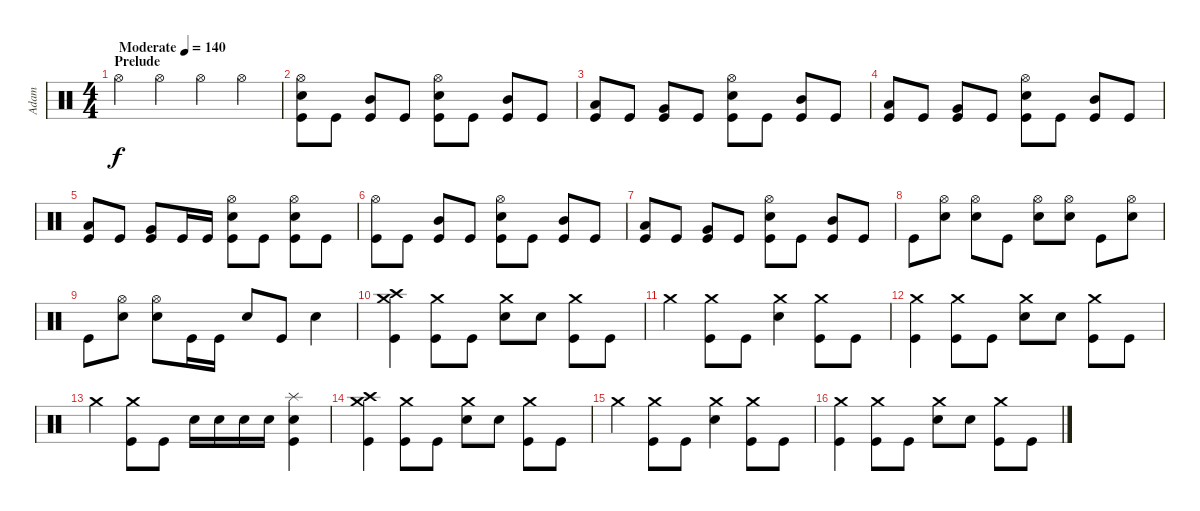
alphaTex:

\track ("Adam" "Adam") {instrument percussion}
\staff {score}
\articulation defaults
\ts (4 4)
\section ("" "Prelude")
\tempo (140 "Moderate")
\clef neutral
\ks c "Hi-Hat (open)".4{dy f} "Hi-Hat (open)".4 "Hi-Hat (open)".4 "Hi-Hat (open)".4
|
("Hi-Hat (open)" "Electric Snare (hit)" "Kick (hit)").8 "Kick (hit)".8 ("Mid Tom (hit)" "Kick (hit)").8 "Kick (hit)".8 ("Hi-Hat (open)" "Electric Snare (hit)" "Kick (hit)").8 "Kick (hit)".8 ("Mid Tom (hit)" "Kick (hit)").8 "Kick (hit)".8 |
("Low Tom (hit)" "Kick (hit)").8 "Kick (hit)".8 ("Very Low Tom (hit)" "Kick (hit)").8 "Kick (hit)".8 ("Hi-Hat (open)" "Electric Snare (hit)" "Kick (hit)").8 "Kick (hit)".8 ("Mid Tom (hit)" "Kick (hit)").8 "Kick (hit)".8 |
("Low Tom (hit)" "Kick (hit)").8 "Kick (hit)".8 ("Very Low Tom (hit)" "Kick (hit)").8 "Kick (hit)".8 ("Hi-Hat (open)" "Electric Snare (hit)" "Kick (hit)").8 "Kick (hit)".8 ("Mid Tom (hit)" "Kick (hit)").8 "Kick (hit)".8 |
("Low Tom (hit)" "Kick (hit)").8 "Kick (hit)".8 ("Very Low Tom (hit)" "Kick (hit)").8 "Kick (hit)".16 "Kick (hit)".16 ("Hi-Hat (open)" "Electric Snare (hit)" "Kick (hit)").8 "Kick (hit)".8 ("Hi-Hat (open)" "Electric Snare (hit)" "Kick (hit)").8 "Kick (hit)".8 |
("Hi-Hat (open)" "Kick (hit)").8 "Kick (hit)".8 ("Mid Tom (hit)" "Kick (hit)").8 "Kick (hit)".8 ("Hi-Hat (open)" "Electric Snare (hit)" "Kick (hit)").8 "Kick (hit)".8 ("Mid Tom (hit)" "Kick (hit)").8 "Kick (hit)".8 |
("Low Tom (hit)" "Kick (hit)").8 "Kick (hit)".8 ("Very Low Tom (hit)" "Kick (hit)").8 "Kick (hit)".8 ("Hi-Hat (open)" "Electric Snare (hit)" "Kick (hit)").8 "Kick (hit)".8 ("Mid Tom (hit)" "Kick (hit)").8 "Kick (hit)".8 |
"Kick (hit)".8 ("Hi-Hat (open)" "Electric Snare (hit)").8 ("Hi-Hat (open)" "Electric Snare (hit)").8 "Kick (hit)".8 ("Hi-Hat (open)" "Electric Snare (hit)").8 ("Hi-Hat (open)" "Electric Snare (hit)").8 "Kick (hit)".8 ("Hi-Hat (open)" "Electric Snare (hit)").8 |
"Kick (hit)".8 ("Hi-Hat (open)" "Electric Snare (hit)").8 ("Hi-Hat (open)" "Electric Snare (hit)").8 "Kick (hit)".16 "Kick (hit)".16 "Electric Snare (hit)".8 "Kick (hit)".8 "Electric Snare (hit)".4 |
("Crash high (hit)" "Crash medium (hit)" "Kick (hit)").4 ("Crash medium (hit)" "Kick (hit)").8 "Kick (hit)".8 ("Crash medium (hit)" "Electric Snare (hit)").8 "Electric Snare (hit)".8 ("Crash medium (hit)" "Kick (hit)").8 "Kick (hit)".8 |
"Crash medium (hit)".4 ("Crash medium (hit)" "Kick (hit)").8 "Kick (hit)".8 ("Crash medium (hit)" "Electric Snare (hit)").4 ("Crash medium (hit)" "Kick (hit)").8 "Kick (hit)".8 |
("Crash medium (hit)" "Kick (hit)").4 ("Crash medium (hit)" "Kick (hit)").8 "Kick (hit)".8 ("Crash medium (hit)" "Electric Snare (hit)").8 "Electric Snare (hit)".8 ("Crash medium (hit)" "Kick (hit)").8 "Kick (hit)".8 |
"Crash medium (hit)".4 ("Crash medium (hit)" "Kick (hit)").8 "Kick (hit)".8 "Electric Snare (hit)".16 "Electric Snare (hit)".16 "Electric Snare (hit)".16 "Electric Snare (hit)".16 ("Splash (hit)" "Electric Snare (hit)" "Kick (hit)").4 |
("Crash high (hit)" "Crash medium (hit)" "Kick (hit)").4 ("Crash medium (hit)" "Kick (hit)").8 "Kick (hit)".8 ("Crash medium (hit)" "Electric Snare (hit)").8 "Electric Snare (hit)".8 ("Crash medium (hit)" "Kick (hit)").8 "Kick (hit)".8 |
"Crash medium (hit)".4 ("Crash medium (hit)" "Kick (hit)").8 "Kick (hit)".8 ("Crash medium (hit)" "Electric Snare (hit)").4 ("Crash medium (hit)" "Kick (hit)").8 "Kick (hit)".8 |
("Crash medium (hit)" "Kick (hit)").4 ("Crash medium (hit)" "Kick (hit)").8 "Kick (hit)".8 ("Crash medium (hit)" "Electric Snare (hit)").8 "Electric Snare (hit)".8 ("Crash medium (hit)" "Kick (hit)").8 "Kick (hit)".8
